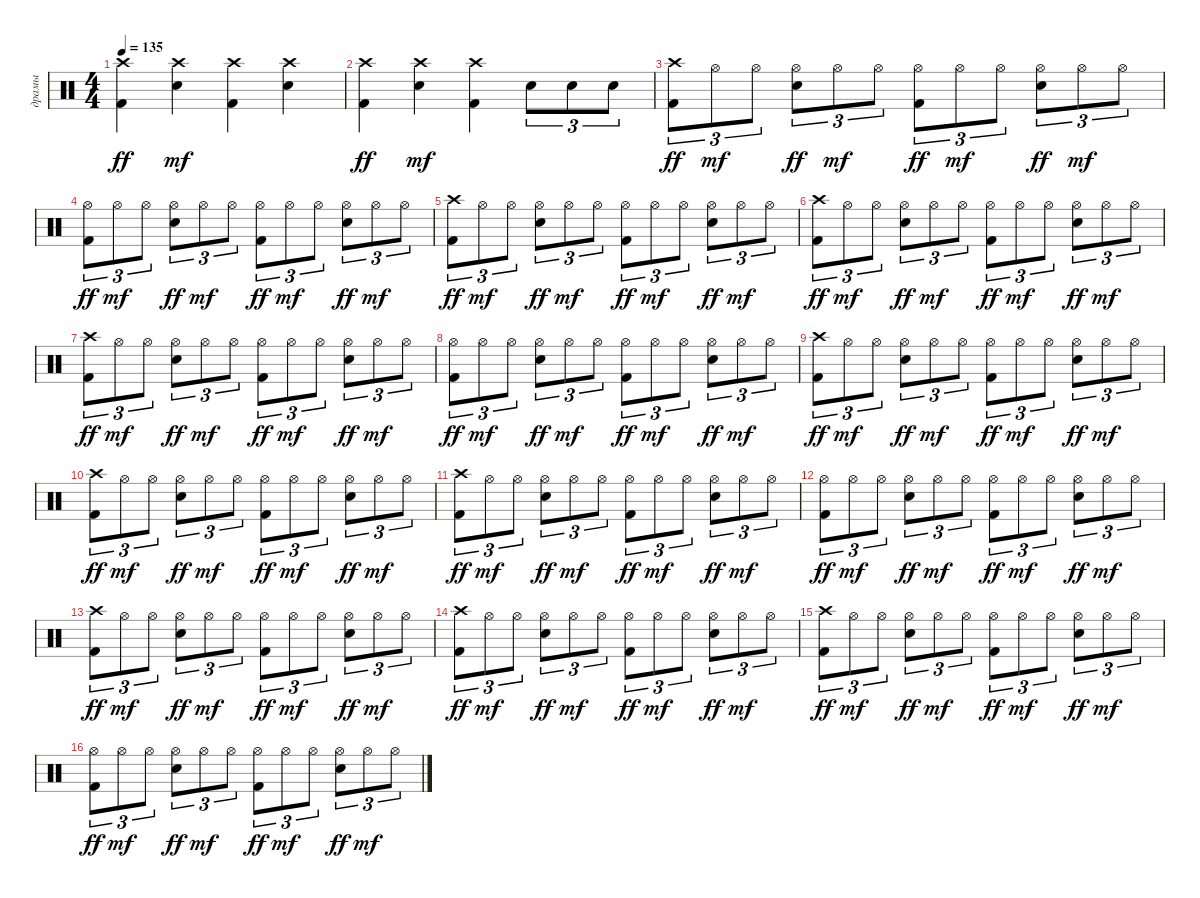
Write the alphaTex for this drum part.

\track ("драмы" "драмы") {instrument percussion}
\staff {score}
\articulation defaults
\ts (4 4)
\tempo 135
\clef neutral
\ks c
("Kick (hit) 2" "Crash high (hit)").4{dy ff} ("Snare (hit) 2" "Crash high (hit)").4{dy mf} ("Kick (hit) 2" "Crash high (hit)").4 ("Snare (hit) 2" "Crash high (hit)").4 |
("Kick (hit) 2" "Crash high (hit)").4{dy ff} ("Snare (hit) 2" "Crash high (hit)").4{dy mf} ("Kick (hit) 2" "Crash high (hit)").4 "Snare (hit) 2".8{tu (3 2)} "Snare (hit) 2".8{tu (3 2)} "Snare (hit) 2".8{tu (3 2)} |
("Crash high (hit)" "Kick (hit) 2").8{tu (3 2) dy ff} "Hi-Hat (open)".8{tu (3 2) dy mf} "Hi-Hat (open)".8{tu (3 2)} ("Hi-Hat (open)" "Snare (hit) 2").8{tu (3 2) dy ff} "Hi-Hat (open)".8{tu (3 2) dy mf} "Hi-Hat (open)".8{tu (3 2)} ("Hi-Hat (open)" "Kick (hit) 2").8{tu (3 2) dy ff} "Hi-Hat (open)".8{tu (3 2) dy mf} "Hi-Hat (open)".8{tu (3 2)} ("Hi-Hat (open)" "Snare (hit) 2").8{tu (3 2) dy ff} "Hi-Hat (open)".8{tu (3 2) dy mf} "Hi-Hat (open)".8{tu (3 2)} |
("Hi-Hat (open)" "Kick (hit) 2").8{tu (3 2) dy ff} "Hi-Hat (open)".8{tu (3 2) dy mf} "Hi-Hat (open)".8{tu (3 2)} ("Hi-Hat (open)" "Snare (hit) 2").8{tu (3 2) dy ff} "Hi-Hat (open)".8{tu (3 2) dy mf} "Hi-Hat (open)".8{tu (3 2)} ("Hi-Hat (open)" "Kick (hit) 2").8{tu (3 2) dy ff} "Hi-Hat (open)".8{tu (3 2) dy mf} "Hi-Hat (open)".8{tu (3 2)} ("Hi-Hat (open)" "Snare (hit) 2").8{tu (3 2) dy ff} "Hi-Hat (open)".8{tu (3 2) dy mf} "Hi-Hat (open)".8{tu (3 2)} |
("Crash high (hit)" "Kick (hit) 2").8{tu (3 2) dy ff} "Hi-Hat (open)".8{tu (3 2) dy mf} "Hi-Hat (open)".8{tu (3 2)} ("Hi-Hat (open)" "Snare (hit) 2").8{tu (3 2) dy ff} "Hi-Hat (open)".8{tu (3 2) dy mf} "Hi-Hat (open)".8{tu (3 2)} ("Hi-Hat (open)" "Kick (hit) 2").8{tu (3 2) dy ff} "Hi-Hat (open)".8{tu (3 2) dy mf} "Hi-Hat (open)".8{tu (3 2)} ("Hi-Hat (open)" "Snare (hit) 2").8{tu (3 2) dy ff} "Hi-Hat (open)".8{tu (3 2) dy mf} "Hi-Hat (open)".8{tu (3 2)} |
("Crash high (hit)" "Kick (hit) 2").8{tu (3 2) dy ff} "Hi-Hat (open)".8{tu (3 2) dy mf} "Hi-Hat (open)".8{tu (3 2)} ("Hi-Hat (open)" "Snare (hit) 2").8{tu (3 2) dy ff} "Hi-Hat (open)".8{tu (3 2) dy mf} "Hi-Hat (open)".8{tu (3 2)} ("Hi-Hat (open)" "Kick (hit) 2").8{tu (3 2) dy ff} "Hi-Hat (open)".8{tu (3 2) dy mf} "Hi-Hat (open)".8{tu (3 2)} ("Hi-Hat (open)" "Snare (hit) 2").8{tu (3 2) dy ff} "Hi-Hat (open)".8{tu (3 2) dy mf} "Hi-Hat (open)".8{tu (3 2)} |
("Crash high (hit)" "Kick (hit) 2").8{tu (3 2) dy ff} "Hi-Hat (open)".8{tu (3 2) dy mf} "Hi-Hat (open)".8{tu (3 2)} ("Hi-Hat (open)" "Snare (hit) 2").8{tu (3 2) dy ff} "Hi-Hat (open)".8{tu (3 2) dy mf} "Hi-Hat (open)".8{tu (3 2)} ("Hi-Hat (open)" "Kick (hit) 2").8{tu (3 2) dy ff} "Hi-Hat (open)".8{tu (3 2) dy mf} "Hi-Hat (open)".8{tu (3 2)} ("Hi-Hat (open)" "Snare (hit) 2").8{tu (3 2) dy ff} "Hi-Hat (open)".8{tu (3 2) dy mf} "Hi-Hat (open)".8{tu (3 2)} |
("Hi-Hat (open)" "Kick (hit) 2").8{tu (3 2) dy ff} "Hi-Hat (open)".8{tu (3 2) dy mf} "Hi-Hat (open)".8{tu (3 2)} ("Hi-Hat (open)" "Snare (hit) 2").8{tu (3 2) dy ff} "Hi-Hat (open)".8{tu (3 2) dy mf} "Hi-Hat (open)".8{tu (3 2)} ("Hi-Hat (open)" "Kick (hit) 2").8{tu (3 2) dy ff} "Hi-Hat (open)".8{tu (3 2) dy mf} "Hi-Hat (open)".8{tu (3 2)} ("Hi-Hat (open)" "Snare (hit) 2").8{tu (3 2) dy ff} "Hi-Hat (open)".8{tu (3 2) dy mf} "Hi-Hat (open)".8{tu (3 2)} |
("Crash high (hit)" "Kick (hit) 2").8{tu (3 2) dy ff} "Hi-Hat (open)".8{tu (3 2) dy mf} "Hi-Hat (open)".8{tu (3 2)} ("Hi-Hat (open)" "Snare (hit) 2").8{tu (3 2) dy ff} "Hi-Hat (open)".8{tu (3 2) dy mf} "Hi-Hat (open)".8{tu (3 2)} ("Hi-Hat (open)" "Kick (hit) 2").8{tu (3 2) dy ff} "Hi-Hat (open)".8{tu (3 2) dy mf} "Hi-Hat (open)".8{tu (3 2)} ("Hi-Hat (open)" "Snare (hit) 2").8{tu (3 2) dy ff} "Hi-Hat (open)".8{tu (3 2) dy mf} "Hi-Hat (open)".8{tu (3 2)} |
("Crash high (hit)" "Kick (hit) 2").8{tu (3 2) dy ff} "Hi-Hat (open)".8{tu (3 2) dy mf} "Hi-Hat (open)".8{tu (3 2)} ("Hi-Hat (open)" "Snare (hit) 2").8{tu (3 2) dy ff} "Hi-Hat (open)".8{tu (3 2) dy mf} "Hi-Hat (open)".8{tu (3 2)} ("Hi-Hat (open)" "Kick (hit) 2").8{tu (3 2) dy ff} "Hi-Hat (open)".8{tu (3 2) dy mf} "Hi-Hat (open)".8{tu (3 2)} ("Hi-Hat (open)" "Snare (hit) 2").8{tu (3 2) dy ff} "Hi-Hat (open)".8{tu (3 2) dy mf} "Hi-Hat (open)".8{tu (3 2)} |
("Crash high (hit)" "Kick (hit) 2").8{tu (3 2) dy ff} "Hi-Hat (open)".8{tu (3 2) dy mf} "Hi-Hat (open)".8{tu (3 2)} ("Hi-Hat (open)" "Snare (hit) 2").8{tu (3 2) dy ff} "Hi-Hat (open)".8{tu (3 2) dy mf} "Hi-Hat (open)".8{tu (3 2)} ("Hi-Hat (open)" "Kick (hit) 2").8{tu (3 2) dy ff} "Hi-Hat (open)".8{tu (3 2) dy mf} "Hi-Hat (open)".8{tu (3 2)} ("Hi-Hat (open)" "Snare (hit) 2").8{tu (3 2) dy ff} "Hi-Hat (open)".8{tu (3 2) dy mf} "Hi-Hat (open)".8{tu (3 2)} |
("Hi-Hat (open)" "Kick (hit) 2").8{tu (3 2) dy ff} "Hi-Hat (open)".8{tu (3 2) dy mf} "Hi-Hat (open)".8{tu (3 2)} ("Hi-Hat (open)" "Snare (hit) 2").8{tu (3 2) dy ff} "Hi-Hat (open)".8{tu (3 2) dy mf} "Hi-Hat (open)".8{tu (3 2)} ("Hi-Hat (open)" "Kick (hit) 2").8{tu (3 2) dy ff} "Hi-Hat (open)".8{tu (3 2) dy mf} "Hi-Hat (open)".8{tu (3 2)} ("Hi-Hat (open)" "Snare (hit) 2").8{tu (3 2) dy ff} "Hi-Hat (open)".8{tu (3 2) dy mf} "Hi-Hat (open)".8{tu (3 2)} |
("Crash high (hit)" "Kick (hit) 2").8{tu (3 2) dy ff} "Hi-Hat (open)".8{tu (3 2) dy mf} "Hi-Hat (open)".8{tu (3 2)} ("Hi-Hat (open)" "Snare (hit) 2").8{tu (3 2) dy ff} "Hi-Hat (open)".8{tu (3 2) dy mf} "Hi-Hat (open)".8{tu (3 2)} ("Hi-Hat (open)" "Kick (hit) 2").8{tu (3 2) dy ff} "Hi-Hat (open)".8{tu (3 2) dy mf} "Hi-Hat (open)".8{tu (3 2)} ("Hi-Hat (open)" "Snare (hit) 2").8{tu (3 2) dy ff} "Hi-Hat (open)".8{tu (3 2) dy mf} "Hi-Hat (open)".8{tu (3 2)} |
("Crash high (hit)" "Kick (hit) 2").8{tu (3 2) dy ff} "Hi-Hat (open)".8{tu (3 2) dy mf} "Hi-Hat (open)".8{tu (3 2)} ("Hi-Hat (open)" "Snare (hit) 2").8{tu (3 2) dy ff} "Hi-Hat (open)".8{tu (3 2) dy mf} "Hi-Hat (open)".8{tu (3 2)} ("Hi-Hat (open)" "Kick (hit) 2").8{tu (3 2) dy ff} "Hi-Hat (open)".8{tu (3 2) dy mf} "Hi-Hat (open)".8{tu (3 2)} ("Hi-Hat (open)" "Snare (hit) 2").8{tu (3 2) dy ff} "Hi-Hat (open)".8{tu (3 2) dy mf} "Hi-Hat (open)".8{tu (3 2)} |
("Crash high (hit)" "Kick (hit) 2").8{tu (3 2) dy ff} "Hi-Hat (open)".8{tu (3 2) dy mf} "Hi-Hat (open)".8{tu (3 2)} ("Hi-Hat (open)" "Snare (hit) 2").8{tu (3 2) dy ff} "Hi-Hat (open)".8{tu (3 2) dy mf} "Hi-Hat (open)".8{tu (3 2)} ("Hi-Hat (open)" "Kick (hit) 2").8{tu (3 2) dy ff} "Hi-Hat (open)".8{tu (3 2) dy mf} "Hi-Hat (open)".8{tu (3 2)} ("Hi-Hat (open)" "Snare (hit) 2").8{tu (3 2) dy ff} "Hi-Hat (open)".8{tu (3 2) dy mf} "Hi-Hat (open)".8{tu (3 2)} |
("Hi-Hat (open)" "Kick (hit) 2").8{tu (3 2) dy ff} "Hi-Hat (open)".8{tu (3 2) dy mf} "Hi-Hat (open)".8{tu (3 2)} ("Hi-Hat (open)" "Snare (hit) 2").8{tu (3 2) dy ff} "Hi-Hat (open)".8{tu (3 2) dy mf} "Hi-Hat (open)".8{tu (3 2)} ("Hi-Hat (open)" "Kick (hit) 2").8{tu (3 2) dy ff} "Hi-Hat (open)".8{tu (3 2) dy mf} "Hi-Hat (open)".8{tu (3 2)} ("Hi-Hat (open)" "Snare (hit) 2").8{tu (3 2) dy ff} "Hi-Hat (open)".8{tu (3 2) dy mf} "Hi-Hat (open)".8{tu (3 2)}
